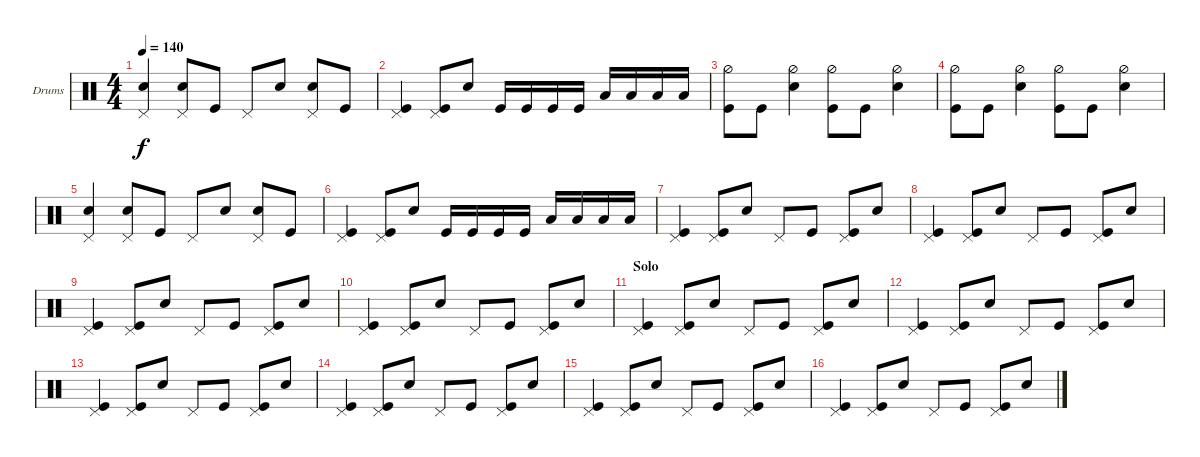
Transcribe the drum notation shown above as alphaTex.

\defaultSystemsLayout 4
\bracketExtendMode groupsimilarinstruments
\firstSystemTrackNameOrientation horizontal
\otherSystemsTrackNameOrientation horizontal
\track ("Drumkit" "Drums") {instrument percussion}
\staff {score}
\articulation defaults
\ts (4 4)
\tempo 140
\clef neutral
\ks c
("Pedal Hi-Hat (hit)" "Snare (hit) 2").4{dy f} ("Pedal Hi-Hat (hit)" "Snare (hit) 2").8 "Kick (hit)".8 "Pedal Hi-Hat (hit)".8 "Snare (hit) 2".8 ("Pedal Hi-Hat (hit)" "Snare (hit) 2").8 "Kick (hit)".8 |
("Kick (hit)" "Pedal Hi-Hat (hit)").4 ("Kick (hit)" "Pedal Hi-Hat (hit)").8 "Snare (hit) 2".8 "Kick (hit)".16 "Kick (hit)".16 "Kick (hit)".16 "Kick (hit)".16 "Low Tom (hit)".16 "Low Tom (hit)".16 "Low Tom (hit)".16 "Low Tom (hit)".16 |
("Kick (hit)" "Hi-Hat (half)").8 "Kick (hit)".8 ("Snare (hit) 2" "Hi-Hat (half)").4 ("Kick (hit)" "Hi-Hat (half)").8 "Kick (hit)".8 ("Snare (hit) 2" "Hi-Hat (half)").4 |
("Kick (hit)" "Hi-Hat (half)").8 "Kick (hit)".8 ("Snare (hit) 2" "Hi-Hat (half)").4 ("Kick (hit)" "Hi-Hat (half)").8 "Kick (hit)".8 ("Snare (hit) 2" "Hi-Hat (half)").4 |
("Pedal Hi-Hat (hit)" "Snare (hit) 2").4 ("Pedal Hi-Hat (hit)" "Snare (hit) 2").8 "Kick (hit)".8 "Pedal Hi-Hat (hit)".8 "Snare (hit) 2".8 ("Pedal Hi-Hat (hit)" "Snare (hit) 2").8 "Kick (hit)".8 |
("Kick (hit)" "Pedal Hi-Hat (hit)").4 ("Kick (hit)" "Pedal Hi-Hat (hit)").8 "Snare (hit) 2".8 "Kick (hit)".16 "Kick (hit)".16 "Kick (hit)".16 "Kick (hit)".16 "Low Tom (hit)".16 "Low Tom (hit)".16 "Low Tom (hit)".16 "Low Tom (hit)".16 |
("Kick (hit)" "Pedal Hi-Hat (hit)").4 ("Kick (hit)" "Pedal Hi-Hat (hit)").8 "Snare (hit) 2".8 "Pedal Hi-Hat (hit)".8 "Kick (hit)".8 ("Kick (hit)" "Pedal Hi-Hat (hit)").8 "Snare (hit) 2".8 |
("Kick (hit)" "Pedal Hi-Hat (hit)").4 ("Kick (hit)" "Pedal Hi-Hat (hit)").8 "Snare (hit) 2".8 "Pedal Hi-Hat (hit)".8 "Kick (hit)".8 ("Kick (hit)" "Pedal Hi-Hat (hit)").8 "Snare (hit) 2".8 |
("Kick (hit)" "Pedal Hi-Hat (hit)").4 ("Kick (hit)" "Pedal Hi-Hat (hit)").8 "Snare (hit) 2".8 "Pedal Hi-Hat (hit)".8 "Kick (hit)".8 ("Kick (hit)" "Pedal Hi-Hat (hit)").8 "Snare (hit) 2".8 |
("Kick (hit)" "Pedal Hi-Hat (hit)").4 ("Kick (hit)" "Pedal Hi-Hat (hit)").8 "Snare (hit) 2".8 "Pedal Hi-Hat (hit)".8 "Kick (hit)".8 ("Kick (hit)" "Pedal Hi-Hat (hit)").8 "Snare (hit) 2".8 |
\section ("" "Solo")
("Kick (hit)" "Pedal Hi-Hat (hit)").4 ("Kick (hit)" "Pedal Hi-Hat (hit)").8 "Snare (hit) 2".8 "Pedal Hi-Hat (hit)".8 "Kick (hit)".8 ("Kick (hit)" "Pedal Hi-Hat (hit)").8 "Snare (hit) 2".8 |
("Kick (hit)" "Pedal Hi-Hat (hit)").4 ("Kick (hit)" "Pedal Hi-Hat (hit)").8 "Snare (hit) 2".8 "Pedal Hi-Hat (hit)".8 "Kick (hit)".8 ("Kick (hit)" "Pedal Hi-Hat (hit)").8 "Snare (hit) 2".8 |
("Kick (hit)" "Pedal Hi-Hat (hit)").4 ("Kick (hit)" "Pedal Hi-Hat (hit)").8 "Snare (hit) 2".8 "Pedal Hi-Hat (hit)".8 "Kick (hit)".8 ("Kick (hit)" "Pedal Hi-Hat (hit)").8 "Snare (hit) 2".8 |
("Kick (hit)" "Pedal Hi-Hat (hit)").4 ("Kick (hit)" "Pedal Hi-Hat (hit)").8 "Snare (hit) 2".8 "Pedal Hi-Hat (hit)".8 "Kick (hit)".8 ("Kick (hit)" "Pedal Hi-Hat (hit)").8 "Snare (hit) 2".8 |
("Kick (hit)" "Pedal Hi-Hat (hit)").4 ("Kick (hit)" "Pedal Hi-Hat (hit)").8 "Snare (hit) 2".8 "Pedal Hi-Hat (hit)".8 "Kick (hit)".8 ("Kick (hit)" "Pedal Hi-Hat (hit)").8 "Snare (hit) 2".8 |
("Kick (hit)" "Pedal Hi-Hat (hit)").4 ("Kick (hit)" "Pedal Hi-Hat (hit)").8 "Snare (hit) 2".8 "Pedal Hi-Hat (hit)".8 "Kick (hit)".8 ("Kick (hit)" "Pedal Hi-Hat (hit)").8 "Snare (hit) 2".8
